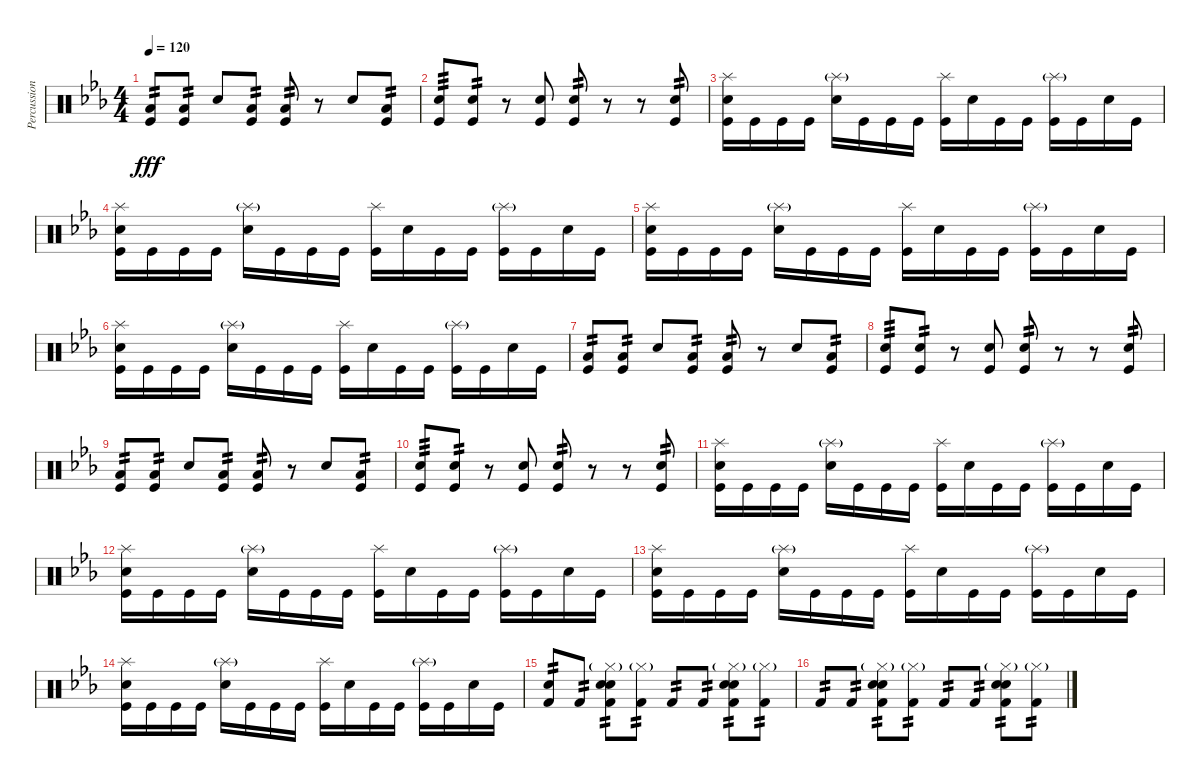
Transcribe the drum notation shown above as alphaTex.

\track ("Percussion" "Percussion") {instrument percussion}
\staff {score}
\articulation defaults
\ts (4 4)
\tempo 120
\clef neutral
\ks cminor
("Low Floor Tom (hit)" "Kick (hit)").8{tp 2 dy fff} ("Low Floor Tom (hit)" "Kick (hit)").8{tp 2} "Snare (hit) 2".8 ("Low Floor Tom (hit)" "Kick (hit)").8{tp 2} ("Low Floor Tom (hit)" "Kick (hit)").8{tp 2} r.8 "Snare (hit) 2".8 ("Low Floor Tom (hit)" "Kick (hit)").8{tp 2} |
("Snare (hit) 2" "Kick (hit)").8{tp 3} ("Snare (hit) 2" "Kick (hit)").8{tp 2} r.8 ("Snare (hit) 2" "Kick (hit)").8 ("Snare (hit) 2" "Kick (hit)").8{tp 2} r.8 r.8 ("Snare (hit) 2" "Kick (hit)").8{tp 2} |
("Splash (hit)" "Snare (hit) 2" "Kick (hit)").16 "Kick (hit)".16 "Kick (hit)".16 "Kick (hit)".16 ("Splash (hit)"{g} "Snare (hit) 2").16 "Kick (hit)".16 "Kick (hit)".16 "Kick (hit)".16 ("Splash (hit)" "Kick (hit)").16 "Snare (hit) 2".16 "Kick (hit)".16 "Kick (hit)".16 ("Splash (hit)"{g} "Kick (hit)").16 "Kick (hit)".16 "Snare (hit) 2".16 "Kick (hit)".16 |
("Splash (hit)" "Snare (hit) 2" "Kick (hit)").16 "Kick (hit)".16 "Kick (hit)".16 "Kick (hit)".16 ("Splash (hit)"{g} "Snare (hit) 2").16 "Kick (hit)".16 "Kick (hit)".16 "Kick (hit)".16 ("Splash (hit)" "Kick (hit)").16 "Snare (hit) 2".16 "Kick (hit)".16 "Kick (hit)".16 ("Splash (hit)"{g} "Kick (hit)").16 "Kick (hit)".16 "Snare (hit) 2".16 "Kick (hit)".16 |
("Splash (hit)" "Snare (hit) 2" "Kick (hit)").16 "Kick (hit)".16 "Kick (hit)".16 "Kick (hit)".16 ("Splash (hit)"{g} "Snare (hit) 2").16 "Kick (hit)".16 "Kick (hit)".16 "Kick (hit)".16 ("Splash (hit)" "Kick (hit)").16 "Snare (hit) 2".16 "Kick (hit)".16 "Kick (hit)".16 ("Splash (hit)"{g} "Kick (hit)").16 "Kick (hit)".16 "Snare (hit) 2".16 "Kick (hit)".16 |
("Splash (hit)" "Snare (hit) 2" "Kick (hit)").16 "Kick (hit)".16 "Kick (hit)".16 "Kick (hit)".16 ("Splash (hit)"{g} "Snare (hit) 2").16 "Kick (hit)".16 "Kick (hit)".16 "Kick (hit)".16 ("Splash (hit)" "Kick (hit)").16 "Snare (hit) 2".16 "Kick (hit)".16 "Kick (hit)".16 ("Splash (hit)"{g} "Kick (hit)").16 "Kick (hit)".16 "Snare (hit) 2".16 "Kick (hit)".16 |
("Low Floor Tom (hit)" "Kick (hit)").8{tp 2} ("Low Floor Tom (hit)" "Kick (hit)").8{tp 2} "Snare (hit) 2".8 ("Low Floor Tom (hit)" "Kick (hit)").8{tp 2} ("Low Floor Tom (hit)" "Kick (hit)").8{tp 2} r.8 "Snare (hit) 2".8 ("Low Floor Tom (hit)" "Kick (hit)").8{tp 2} |
("Snare (hit) 2" "Kick (hit)").8{tp 3} ("Snare (hit) 2" "Kick (hit)").8{tp 2} r.8 ("Snare (hit) 2" "Kick (hit)").8 ("Snare (hit) 2" "Kick (hit)").8{tp 2} r.8 r.8 ("Snare (hit) 2" "Kick (hit)").8{tp 2} |
("Low Floor Tom (hit)" "Kick (hit)").8{tp 2} ("Low Floor Tom (hit)" "Kick (hit)").8{tp 2} "Snare (hit) 2".8 ("Low Floor Tom (hit)" "Kick (hit)").8{tp 2} ("Low Floor Tom (hit)" "Kick (hit)").8{tp 2} r.8 "Snare (hit) 2".8 ("Low Floor Tom (hit)" "Kick (hit)").8{tp 2} |
("Snare (hit) 2" "Kick (hit)").8{tp 3} ("Snare (hit) 2" "Kick (hit)").8{tp 2} r.8 ("Snare (hit) 2" "Kick (hit)").8 ("Snare (hit) 2" "Kick (hit)").8{tp 2} r.8 r.8 ("Snare (hit) 2" "Kick (hit)").8{tp 2} |
("Splash (hit)" "Snare (hit) 2" "Kick (hit)").16 "Kick (hit)".16 "Kick (hit)".16 "Kick (hit)".16 ("Splash (hit)"{g} "Snare (hit) 2").16 "Kick (hit)".16 "Kick (hit)".16 "Kick (hit)".16 ("Splash (hit)" "Kick (hit)").16 "Snare (hit) 2".16 "Kick (hit)".16 "Kick (hit)".16 ("Splash (hit)"{g} "Kick (hit)").16 "Kick (hit)".16 "Snare (hit) 2".16 "Kick (hit)".16 |
("Splash (hit)" "Snare (hit) 2" "Kick (hit)").16 "Kick (hit)".16 "Kick (hit)".16 "Kick (hit)".16 ("Splash (hit)"{g} "Snare (hit) 2").16 "Kick (hit)".16 "Kick (hit)".16 "Kick (hit)".16 ("Splash (hit)" "Kick (hit)").16 "Snare (hit) 2".16 "Kick (hit)".16 "Kick (hit)".16 ("Splash (hit)"{g} "Kick (hit)").16 "Kick (hit)".16 "Snare (hit) 2".16 "Kick (hit)".16 |
("Splash (hit)" "Snare (hit) 2" "Kick (hit)").16 "Kick (hit)".16 "Kick (hit)".16 "Kick (hit)".16 ("Splash (hit)"{g} "Snare (hit) 2").16 "Kick (hit)".16 "Kick (hit)".16 "Kick (hit)".16 ("Splash (hit)" "Kick (hit)").16 "Snare (hit) 2".16 "Kick (hit)".16 "Kick (hit)".16 ("Splash (hit)"{g} "Kick (hit)").16 "Kick (hit)".16 "Snare (hit) 2".16 "Kick (hit)".16 |
("Splash (hit)" "Snare (hit) 2" "Kick (hit)").16 "Kick (hit)".16 "Kick (hit)".16 "Kick (hit)".16 ("Splash (hit)"{g} "Snare (hit) 2").16 "Kick (hit)".16 "Kick (hit)".16 "Kick (hit)".16 ("Splash (hit)" "Kick (hit)").16 "Snare (hit) 2".16 "Kick (hit)".16 "Kick (hit)".16 ("Splash (hit)"{g} "Kick (hit)").16 "Kick (hit)".16 "Snare (hit) 2".16 "Kick (hit)".16 |
("Snare (hit) 2" "Kick (hit) 2").8{tp 2} "Kick (hit) 2".8{tp 2} ("Electric Snare (hit)" "Hi-Hat (closed)"{g} "Hand Clap (hit)" "Kick (hit) 2").8{tp 2} ("Hi-Hat (closed)"{g} "Kick (hit) 2").8{tp 2} "Kick (hit) 2".8{tp 2} "Kick (hit) 2".8{tp 2} ("Electric Snare (hit)" "Hi-Hat (closed)"{g} "Hand Clap (hit)" "Kick (hit) 2").8{tp 2} ("Hi-Hat (closed)"{g} "Kick (hit) 2").8{tp 2} |
"Kick (hit) 2".8{tp 2} "Kick (hit) 2".8{tp 2} ("Electric Snare (hit)" "Hi-Hat (closed)"{g} "Hand Clap (hit)" "Kick (hit) 2").8{tp 2} ("Hi-Hat (closed)"{g} "Kick (hit) 2").8{tp 2} "Kick (hit) 2".8{tp 2} "Kick (hit) 2".8{tp 2} ("Electric Snare (hit)" "Hi-Hat (closed)"{g} "Hand Clap (hit)" "Kick (hit) 2").8{tp 2} ("Hi-Hat (closed)"{g} "Kick (hit) 2").8{tp 2}
